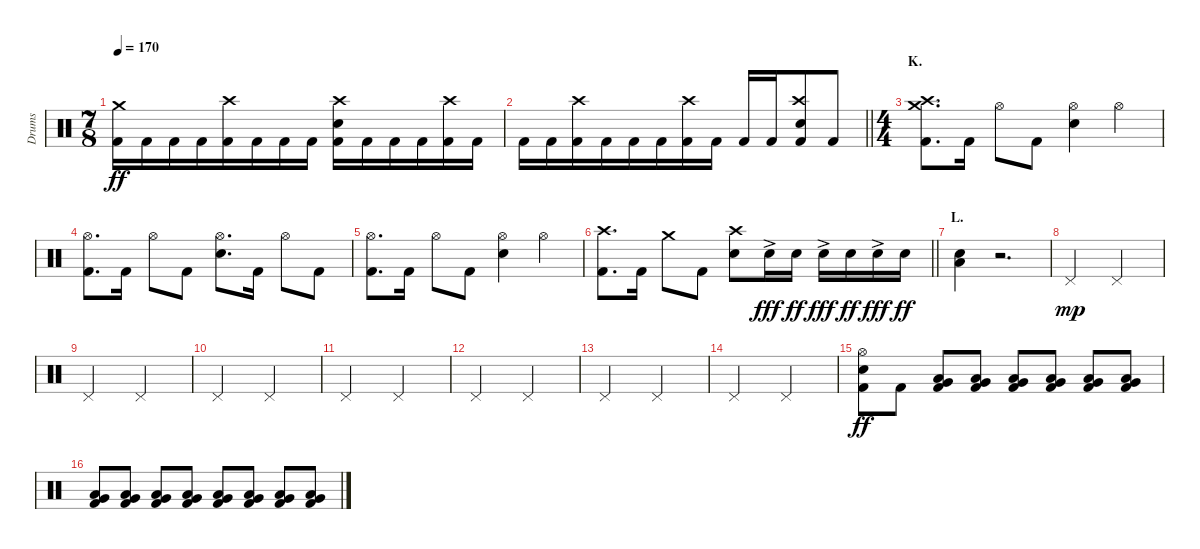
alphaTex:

\track ("Drums" "Drums") {instrument percussion}
\staff {score}
\articulation defaults
\ts (7 8)
\tempo 170
\clef neutral
\ks c
("Crash medium (hit)" "Kick (hit) 2").16{dy ff} "Kick (hit) 2".16 "Kick (hit) 2".16 "Kick (hit) 2".16 ("Crash high (hit)" "Kick (hit) 2").16 "Kick (hit) 2".16 "Kick (hit) 2".16 "Kick (hit) 2".16 ("Crash high (hit)" "Electric Snare (hit)" "Kick (hit) 2").16 "Kick (hit) 2".16 "Kick (hit) 2".16 "Kick (hit) 2".16 ("Crash high (hit)" "Kick (hit) 2").16 "Kick (hit) 2".16 |
\barLineRight lightlight "Kick (hit) 2".16 "Kick (hit) 2".16
("Crash high (hit)" "Kick (hit) 2").16 "Kick (hit) 2".16 "Kick (hit) 2".16 "Kick (hit) 2".16 ("Crash high (hit)" "Kick (hit) 2").16 "Kick (hit) 2".16 "Kick (hit) 2".16 "Kick (hit) 2".16 ("Crash high (hit)" "Electric Snare (hit)" "Kick (hit) 2").8 "Kick (hit) 2".8 |
\ts (4 4)
\section ("" "K.")
("Crash medium (hit)" "Crash high (hit)" "Kick (hit) 2").8{d} "Kick (hit) 2".16 "Hi-Hat (open)".8 "Kick (hit) 2".8 ("Hi-Hat (open)" "Electric Snare (hit)").4 "Hi-Hat (open)".4 |
("Hi-Hat (open)" "Kick (hit) 2").8{d} "Kick (hit) 2".16 "Hi-Hat (open)".8 "Kick (hit) 2".8 ("Hi-Hat (open)" "Electric Snare (hit)").8{d} "Kick (hit) 2".16 "Hi-Hat (open)".8 "Kick (hit) 2".8 |
("Hi-Hat (open)" "Kick (hit) 2").8{d} "Kick (hit) 2".16 "Hi-Hat (open)".8 "Kick (hit) 2".8 ("Hi-Hat (open)" "Electric Snare (hit)").4 "Hi-Hat (open)".4 |
\barLineRight lightlight
("Crash high (hit)" "Kick (hit) 2").8{d} "Kick (hit) 2".16 "Crash medium (hit)".8 "Kick (hit) 2".8 ("Crash high (hit)" "Electric Snare (hit)").8 "Electric Snare (hit)"{ac}.16{dy fff} "Electric Snare (hit)".16{dy ff} "Electric Snare (hit)"{ac}.16{dy fff} "Electric Snare (hit)".16{dy ff} "Electric Snare (hit)"{ac}.16{dy fff} "Electric Snare (hit)".16{dy ff} |
\section ("" "L.")
("Low Tom (hit)" "Electric Snare (hit)").4{bu 60} r.2{d} |
"Pedal Hi-Hat (hit)".2{dy mp} "Pedal Hi-Hat (hit)".2 |
"Pedal Hi-Hat (hit)".2 "Pedal Hi-Hat (hit)".2 |
"Pedal Hi-Hat (hit)".2 "Pedal Hi-Hat (hit)".2 |
"Pedal Hi-Hat (hit)".2 "Pedal Hi-Hat (hit)".2 |
"Pedal Hi-Hat (hit)".2 "Pedal Hi-Hat (hit)".2 |
"Pedal Hi-Hat (hit)".2 "Pedal Hi-Hat (hit)".2 |
"Pedal Hi-Hat (hit)".2 "Pedal Hi-Hat (hit)".2 |
("Hi-Hat (open)" "Electric Snare (hit)" "Kick (hit) 2").8{dy ff} "Kick (hit) 2".8 ("Low Tom (hit)" "Very Low Tom (hit)" "Kick (hit) 2").8 ("Low Tom (hit)" "Very Low Tom (hit)" "Kick (hit) 2").8 ("Low Tom (hit)" "Very Low Tom (hit)" "Kick (hit) 2").8 ("Low Tom (hit)" "Very Low Tom (hit)" "Kick (hit) 2").8 ("Low Tom (hit)" "Very Low Tom (hit)" "Kick (hit) 2").8 ("Low Tom (hit)" "Very Low Tom (hit)" "Kick (hit) 2").8 |
("Low Tom (hit)" "Very Low Tom (hit)" "Kick (hit) 2").8 ("Low Tom (hit)" "Very Low Tom (hit)" "Kick (hit) 2").8 ("Low Tom (hit)" "Very Low Tom (hit)" "Kick (hit) 2").8 ("Low Tom (hit)" "Very Low Tom (hit)" "Kick (hit) 2").8 ("Low Tom (hit)" "Very Low Tom (hit)" "Kick (hit) 2").8 ("Low Tom (hit)" "Very Low Tom (hit)" "Kick (hit) 2").8 ("Low Tom (hit)" "Very Low Tom (hit)" "Kick (hit) 2").8 ("Low Tom (hit)" "Very Low Tom (hit)" "Kick (hit) 2").8
